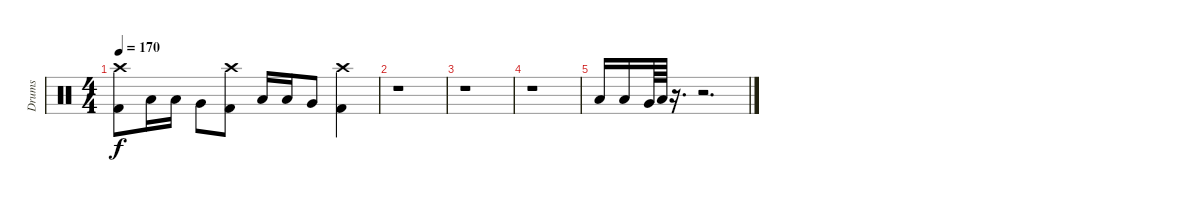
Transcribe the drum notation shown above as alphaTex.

\track ("Drums" "Drums") {instrument percussion}
\staff {score}
\articulation defaults
\ts (4 4)
\tempo 170
\clef neutral
\ks c
("Crash high (hit)" "Kick (hit) 2").8{dy f} "Low Tom (hit)".16 "Low Tom (hit)".16 "Very Low Tom (hit)".8 ("Crash high (hit)" "Kick (hit) 2").8 "Low Tom (hit)".16 "Low Tom (hit)".16 "Very Low Tom (hit)".8 ("Crash high (hit)" "Kick (hit) 2").4 |
r.1 |
r.1 |
r.1 |
"Low Tom (hit)".16 "Low Tom (hit)".16 "Very Low Tom (hit)".64 "Low Floor Tom (hit)".64 r.16{d} r.2{d}
